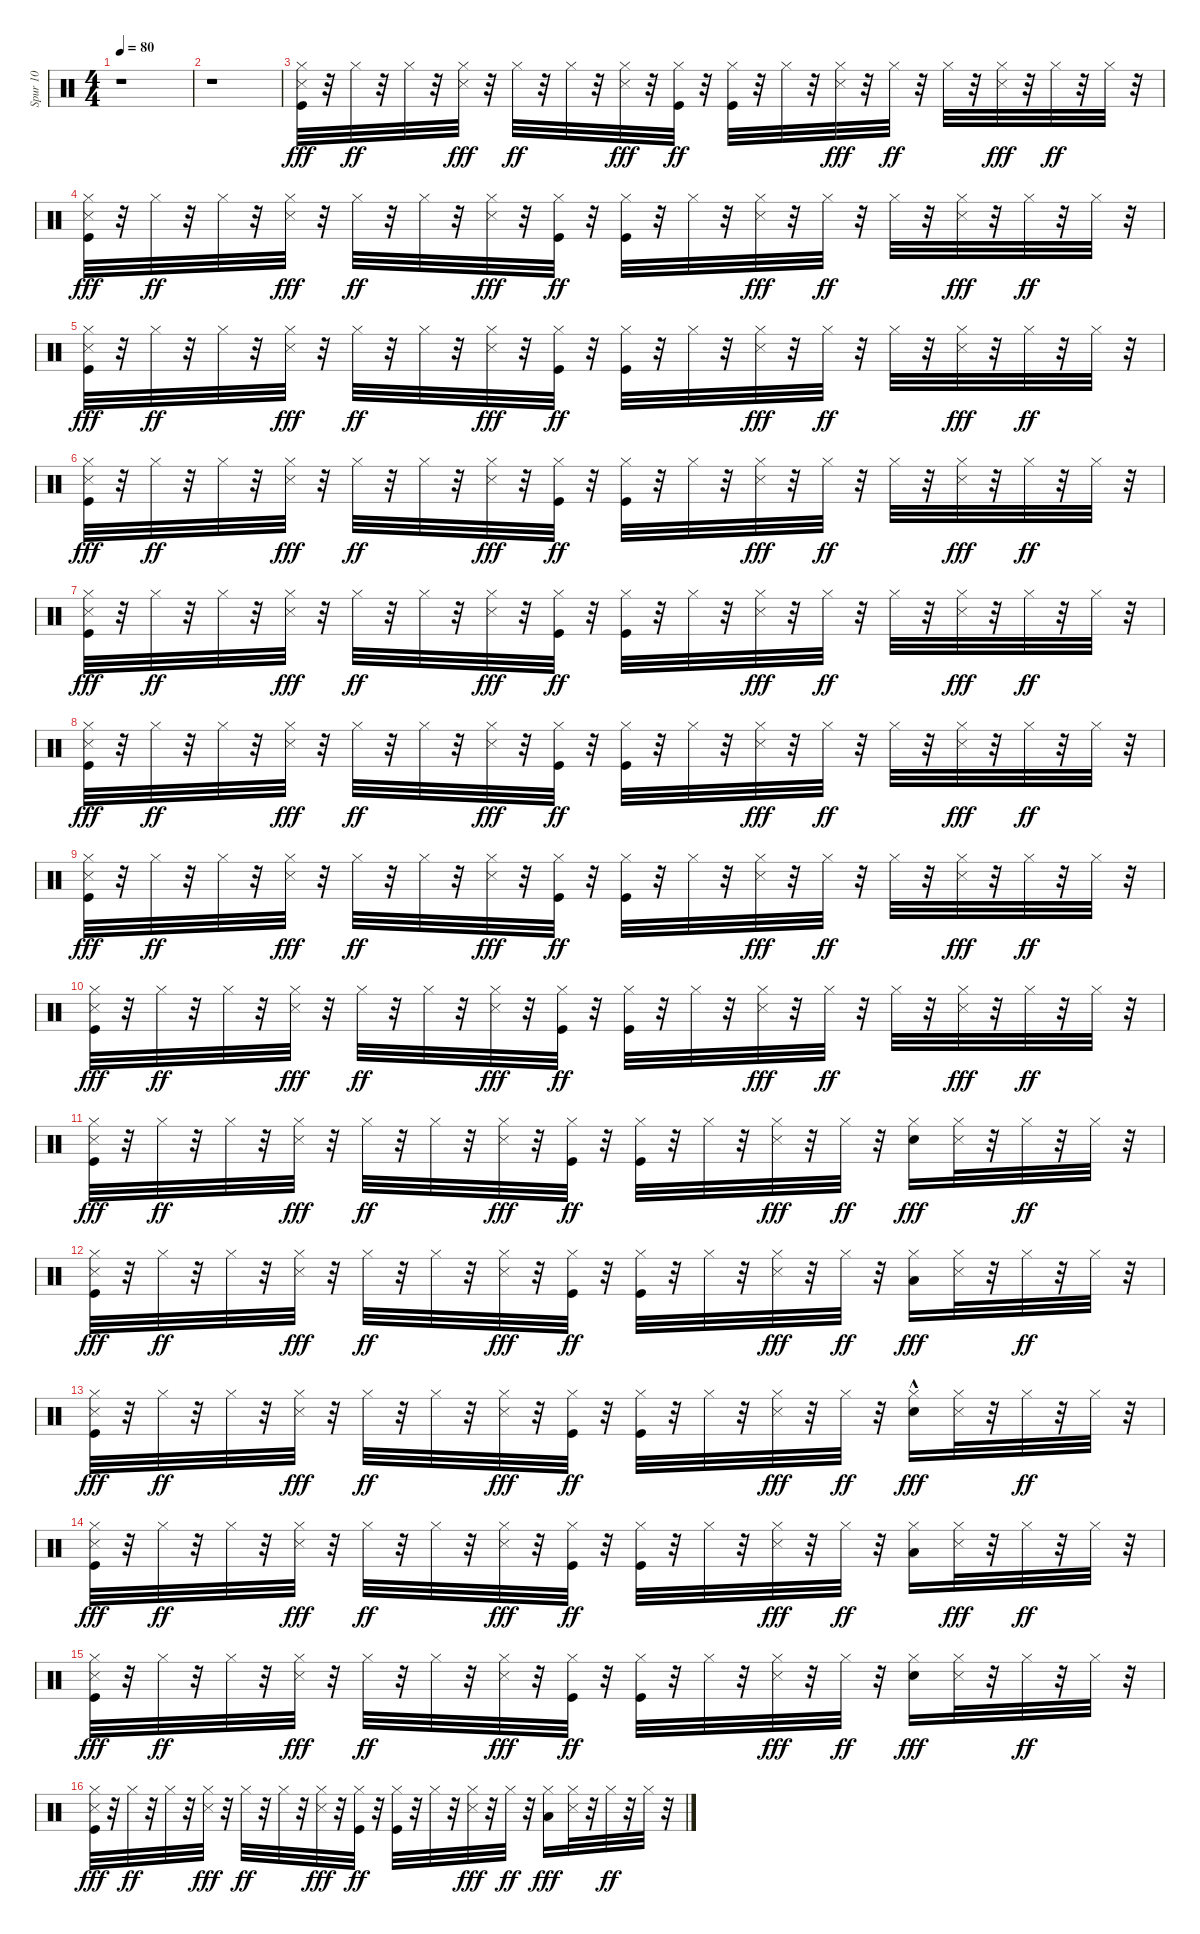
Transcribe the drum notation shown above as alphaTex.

\track ("Spur 10" "Spur 10") {instrument percussion}
\staff {score}
\articulation defaults
\ts (4 4)
\tempo 80
\clef neutral
\ks c
r.1{dy fff} |
r.1 |
("Kick (hit)" "Hi-Hat (closed)" "Snare (side stick) 3").32 r.32 "Hi-Hat (closed)".32{dy ff} r.32 "Hi-Hat (closed)".32 r.32 ("Hi-Hat (closed)" "Snare (side stick) 3").32{dy fff} r.32 "Hi-Hat (closed)".32{dy ff} r.32 "Hi-Hat (closed)".32 r.32 ("Hi-Hat (closed)" "Snare (side stick) 3").32{dy fff} r.32 ("Kick (hit)" "Hi-Hat (closed)").32{dy ff} r.32 ("Kick (hit)" "Hi-Hat (closed)").32 r.32 "Hi-Hat (closed)".32 r.32 ("Hi-Hat (closed)" "Snare (side stick) 3").32{dy fff} r.32 "Hi-Hat (closed)".32{dy ff} r.32 "Hi-Hat (closed)".32 r.32 ("Hi-Hat (closed)" "Snare (side stick) 3").32{dy fff} r.32 "Hi-Hat (closed)".32{dy ff} r.32 "Hi-Hat (closed)".32 r.32 |
("Kick (hit)" "Hi-Hat (closed)" "Snare (side stick) 3").32{dy fff} r.32 "Hi-Hat (closed)".32{dy ff} r.32 "Hi-Hat (closed)".32 r.32 ("Hi-Hat (closed)" "Snare (side stick) 3").32{dy fff} r.32 "Hi-Hat (closed)".32{dy ff} r.32 "Hi-Hat (closed)".32 r.32 ("Hi-Hat (closed)" "Snare (side stick) 3").32{dy fff} r.32 ("Kick (hit)" "Hi-Hat (closed)").32{dy ff} r.32 ("Kick (hit)" "Hi-Hat (closed)").32 r.32 "Hi-Hat (closed)".32 r.32 ("Hi-Hat (closed)" "Snare (side stick) 3").32{dy fff} r.32 "Hi-Hat (closed)".32{dy ff} r.32 "Hi-Hat (closed)".32 r.32 ("Hi-Hat (closed)" "Snare (side stick) 3").32{dy fff} r.32 "Hi-Hat (closed)".32{dy ff} r.32 "Hi-Hat (closed)".32 r.32 |
("Kick (hit)" "Hi-Hat (closed)" "Snare (side stick) 3").32{dy fff} r.32 "Hi-Hat (closed)".32{dy ff} r.32 "Hi-Hat (closed)".32 r.32 ("Hi-Hat (closed)" "Snare (side stick) 3").32{dy fff} r.32 "Hi-Hat (closed)".32{dy ff} r.32 "Hi-Hat (closed)".32 r.32 ("Hi-Hat (closed)" "Snare (side stick) 3").32{dy fff} r.32 ("Kick (hit)" "Hi-Hat (closed)").32{dy ff} r.32 ("Kick (hit)" "Hi-Hat (closed)").32 r.32 "Hi-Hat (closed)".32 r.32 ("Hi-Hat (closed)" "Snare (side stick) 3").32{dy fff} r.32 "Hi-Hat (closed)".32{dy ff} r.32 "Hi-Hat (closed)".32 r.32 ("Hi-Hat (closed)" "Snare (side stick) 3").32{dy fff} r.32 "Hi-Hat (closed)".32{dy ff} r.32 "Hi-Hat (closed)".32 r.32 |
("Kick (hit)" "Hi-Hat (closed)" "Snare (side stick) 3").32{dy fff} r.32 "Hi-Hat (closed)".32{dy ff} r.32 "Hi-Hat (closed)".32 r.32 ("Hi-Hat (closed)" "Snare (side stick) 3").32{dy fff} r.32 "Hi-Hat (closed)".32{dy ff} r.32 "Hi-Hat (closed)".32 r.32 ("Hi-Hat (closed)" "Snare (side stick) 3").32{dy fff} r.32 ("Kick (hit)" "Hi-Hat (closed)").32{dy ff} r.32 ("Kick (hit)" "Hi-Hat (closed)").32 r.32 "Hi-Hat (closed)".32 r.32 ("Hi-Hat (closed)" "Snare (side stick) 3").32{dy fff} r.32 "Hi-Hat (closed)".32{dy ff} r.32 "Hi-Hat (closed)".32 r.32 ("Hi-Hat (closed)" "Snare (side stick) 3").32{dy fff} r.32 "Hi-Hat (closed)".32{dy ff} r.32 "Hi-Hat (closed)".32 r.32 |
("Kick (hit)" "Hi-Hat (closed)" "Snare (side stick) 3").32{dy fff} r.32 "Hi-Hat (closed)".32{dy ff} r.32 "Hi-Hat (closed)".32 r.32 ("Hi-Hat (closed)" "Snare (side stick) 3").32{dy fff} r.32 "Hi-Hat (closed)".32{dy ff} r.32 "Hi-Hat (closed)".32 r.32 ("Hi-Hat (closed)" "Snare (side stick) 3").32{dy fff} r.32 ("Kick (hit)" "Hi-Hat (closed)").32{dy ff} r.32 ("Kick (hit)" "Hi-Hat (closed)").32 r.32 "Hi-Hat (closed)".32 r.32 ("Hi-Hat (closed)" "Snare (side stick) 3").32{dy fff} r.32 "Hi-Hat (closed)".32{dy ff} r.32 "Hi-Hat (closed)".32 r.32 ("Hi-Hat (closed)" "Snare (side stick) 3").32{dy fff} r.32 "Hi-Hat (closed)".32{dy ff} r.32 "Hi-Hat (closed)".32 r.32 |
("Kick (hit)" "Hi-Hat (closed)" "Snare (side stick) 3").32{dy fff} r.32 "Hi-Hat (closed)".32{dy ff} r.32 "Hi-Hat (closed)".32 r.32 ("Hi-Hat (closed)" "Snare (side stick) 3").32{dy fff} r.32 "Hi-Hat (closed)".32{dy ff} r.32 "Hi-Hat (closed)".32 r.32 ("Hi-Hat (closed)" "Snare (side stick) 3").32{dy fff} r.32 ("Kick (hit)" "Hi-Hat (closed)").32{dy ff} r.32 ("Kick (hit)" "Hi-Hat (closed)").32 r.32 "Hi-Hat (closed)".32 r.32 ("Hi-Hat (closed)" "Snare (side stick) 3").32{dy fff} r.32 "Hi-Hat (closed)".32{dy ff} r.32 "Hi-Hat (closed)".32 r.32 ("Hi-Hat (closed)" "Snare (side stick) 3").32{dy fff} r.32 "Hi-Hat (closed)".32{dy ff} r.32 "Hi-Hat (closed)".32 r.32 |
("Kick (hit)" "Hi-Hat (closed)" "Snare (side stick) 3").32{dy fff} r.32 "Hi-Hat (closed)".32{dy ff} r.32 "Hi-Hat (closed)".32 r.32 ("Hi-Hat (closed)" "Snare (side stick) 3").32{dy fff} r.32 "Hi-Hat (closed)".32{dy ff} r.32 "Hi-Hat (closed)".32 r.32 ("Hi-Hat (closed)" "Snare (side stick) 3").32{dy fff} r.32 ("Kick (hit)" "Hi-Hat (closed)").32{dy ff} r.32 ("Kick (hit)" "Hi-Hat (closed)").32 r.32 "Hi-Hat (closed)".32 r.32 ("Hi-Hat (closed)" "Snare (side stick) 3").32{dy fff} r.32 "Hi-Hat (closed)".32{dy ff} r.32 "Hi-Hat (closed)".32 r.32 ("Hi-Hat (closed)" "Snare (side stick) 3").32{dy fff} r.32 "Hi-Hat (closed)".32{dy ff} r.32 "Hi-Hat (closed)".32 r.32 |
("Kick (hit)" "Hi-Hat (closed)" "Snare (side stick) 3").32{dy fff} r.32 "Hi-Hat (closed)".32{dy ff} r.32 "Hi-Hat (closed)".32 r.32 ("Hi-Hat (closed)" "Snare (side stick) 3").32{dy fff} r.32 "Hi-Hat (closed)".32{dy ff} r.32 "Hi-Hat (closed)".32 r.32 ("Hi-Hat (closed)" "Snare (side stick) 3").32{dy fff} r.32 ("Kick (hit)" "Hi-Hat (closed)").32{dy ff} r.32 ("Kick (hit)" "Hi-Hat (closed)").32 r.32 "Hi-Hat (closed)".32 r.32 ("Hi-Hat (closed)" "Snare (side stick) 3").32{dy fff} r.32 "Hi-Hat (closed)".32{dy ff} r.32 "Hi-Hat (closed)".32 r.32 ("Hi-Hat (closed)" "Snare (side stick) 3").32{dy fff} r.32 "Hi-Hat (closed)".32{dy ff} r.32 "Hi-Hat (closed)".32 r.32 |
("Kick (hit)" "Hi-Hat (closed)" "Snare (side stick) 3").32{dy fff} r.32 "Hi-Hat (closed)".32{dy ff} r.32 "Hi-Hat (closed)".32 r.32 ("Hi-Hat (closed)" "Snare (side stick) 3").32{dy fff} r.32 "Hi-Hat (closed)".32{dy ff} r.32 "Hi-Hat (closed)".32 r.32 ("Hi-Hat (closed)" "Snare (side stick) 3").32{dy fff} r.32 ("Kick (hit)" "Hi-Hat (closed)").32{dy ff} r.32 ("Kick (hit)" "Hi-Hat (closed)").32 r.32 "Hi-Hat (closed)".32 r.32 ("Hi-Hat (closed)" "Snare (side stick) 3").32{dy fff} r.32 "Hi-Hat (closed)".32{dy ff} r.32 ("Hi-Hat (closed)" "Snare (hit) 2").16{dy fff} ("Hi-Hat (closed)" "Snare (side stick) 3").32 r.32 "Hi-Hat (closed)".32{dy ff} r.32 "Hi-Hat (closed)".32 r.32 |
("Kick (hit)" "Hi-Hat (closed)" "Snare (side stick) 3").32{dy fff} r.32 "Hi-Hat (closed)".32{dy ff} r.32 "Hi-Hat (closed)".32 r.32 ("Hi-Hat (closed)" "Snare (side stick) 3").32{dy fff} r.32 "Hi-Hat (closed)".32{dy ff} r.32 "Hi-Hat (closed)".32 r.32 ("Hi-Hat (closed)" "Snare (side stick) 3").32{dy fff} r.32 ("Kick (hit)" "Hi-Hat (closed)").32{dy ff} r.32 ("Kick (hit)" "Hi-Hat (closed)").32 r.32 "Hi-Hat (closed)".32 r.32 ("Hi-Hat (closed)" "Snare (side stick) 3").32{dy fff} r.32 "Hi-Hat (closed)".32{dy ff} r.32 ("Hi-Hat (closed)" "Low Floor Tom (hit)").16{dy fff} ("Hi-Hat (closed)" "Snare (side stick) 3").32 r.32 "Hi-Hat (closed)".32{dy ff} r.32 "Hi-Hat (closed)".32 r.32 |
("Kick (hit)" "Hi-Hat (closed)" "Snare (side stick) 3").32{dy fff} r.32 "Hi-Hat (closed)".32{dy ff} r.32 "Hi-Hat (closed)".32 r.32 ("Hi-Hat (closed)" "Snare (side stick) 3").32{dy fff} r.32 "Hi-Hat (closed)".32{dy ff} r.32 "Hi-Hat (closed)".32 r.32 ("Hi-Hat (closed)" "Snare (side stick) 3").32{dy fff} r.32 ("Kick (hit)" "Hi-Hat (closed)").32{dy ff} r.32 ("Kick (hit)" "Hi-Hat (closed)").32 r.32 "Hi-Hat (closed)".32 r.32 ("Hi-Hat (closed)" "Snare (side stick) 3").32{dy fff} r.32 "Hi-Hat (closed)".32{dy ff} r.32 ("Hi-Hat (closed)" "Snare (hit) 2"{hac}).16{dy fff} ("Hi-Hat (closed)" "Snare (side stick) 3").32 r.32 "Hi-Hat (closed)".32{dy ff} r.32 "Hi-Hat (closed)".32 r.32 |
("Kick (hit)" "Hi-Hat (closed)" "Snare (side stick) 3").32{dy fff} r.32 "Hi-Hat (closed)".32{dy ff} r.32 "Hi-Hat (closed)".32 r.32 ("Hi-Hat (closed)" "Snare (side stick) 3").32{dy fff} r.32 "Hi-Hat (closed)".32{dy ff} r.32 "Hi-Hat (closed)".32 r.32 ("Hi-Hat (closed)" "Snare (side stick) 3").32{dy fff} r.32 ("Kick (hit)" "Hi-Hat (closed)").32{dy ff} r.32 ("Kick (hit)" "Hi-Hat (closed)").32 r.32 "Hi-Hat (closed)".32 r.32 ("Hi-Hat (closed)" "Snare (side stick) 3").32{dy fff} r.32 "Hi-Hat (closed)".32{dy ff} r.32 ("Low Floor Tom (hit)" "Hi-Hat (closed)").16 ("Hi-Hat (closed)" "Snare (side stick) 3").32{dy fff} r.32 "Hi-Hat (closed)".32{dy ff} r.32 "Hi-Hat (closed)".32 r.32 |
("Kick (hit)" "Hi-Hat (closed)" "Snare (side stick) 3").32{dy fff} r.32 "Hi-Hat (closed)".32{dy ff} r.32 "Hi-Hat (closed)".32 r.32 ("Hi-Hat (closed)" "Snare (side stick) 3").32{dy fff} r.32 "Hi-Hat (closed)".32{dy ff} r.32 "Hi-Hat (closed)".32 r.32 ("Hi-Hat (closed)" "Snare (side stick) 3").32{dy fff} r.32 ("Kick (hit)" "Hi-Hat (closed)").32{dy ff} r.32 ("Kick (hit)" "Hi-Hat (closed)").32 r.32 "Hi-Hat (closed)".32 r.32 ("Hi-Hat (closed)" "Snare (side stick) 3").32{dy fff} r.32 "Hi-Hat (closed)".32{dy ff} r.32 ("Hi-Hat (closed)" "Snare (hit) 2").16{dy fff} ("Hi-Hat (closed)" "Snare (side stick) 3").32 r.32 "Hi-Hat (closed)".32{dy ff} r.32 "Hi-Hat (closed)".32 r.32 |
("Kick (hit)" "Hi-Hat (closed)" "Snare (side stick) 3").32{dy fff} r.32 "Hi-Hat (closed)".32{dy ff} r.32 "Hi-Hat (closed)".32 r.32 ("Hi-Hat (closed)" "Snare (side stick) 3").32{dy fff} r.32 "Hi-Hat (closed)".32{dy ff} r.32 "Hi-Hat (closed)".32 r.32 ("Hi-Hat (closed)" "Snare (side stick) 3").32{dy fff} r.32 ("Kick (hit)" "Hi-Hat (closed)").32{dy ff} r.32 ("Kick (hit)" "Hi-Hat (closed)").32 r.32 "Hi-Hat (closed)".32 r.32 ("Hi-Hat (closed)" "Snare (side stick) 3").32{dy fff} r.32 "Hi-Hat (closed)".32{dy ff} r.32 ("Hi-Hat (closed)" "Low Floor Tom (hit)").16{dy fff} ("Hi-Hat (closed)" "Snare (side stick) 3").32 r.32 "Hi-Hat (closed)".32{dy ff} r.32 "Hi-Hat (closed)".32 r.32
